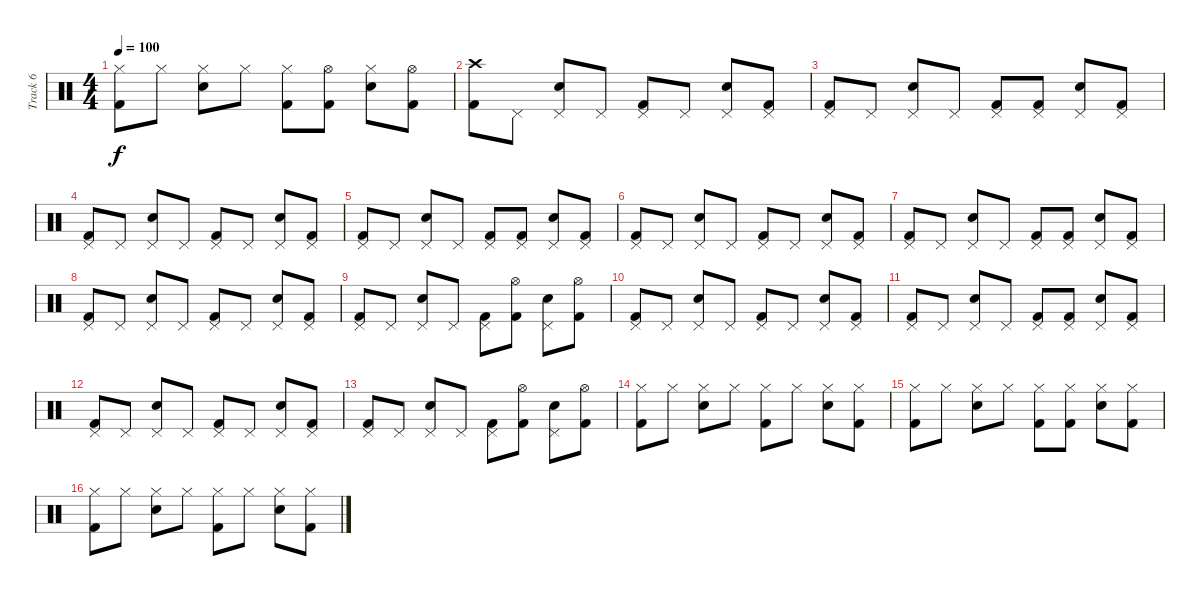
\track ("Track 6" "Track 6") {instrument percussion}
\staff {score}
\articulation defaults
\ts (4 4)
\tempo 100
\clef neutral
\ks c
("Hi-Hat (closed)" "Kick (hit) 2").8{dy f} "Hi-Hat (closed)".8 ("Hi-Hat (closed)" "Electric Snare (hit)").8 "Hi-Hat (closed)".8 ("Hi-Hat (closed)" "Kick (hit) 2").8 ("Hi-Hat (open)" "Kick (hit) 2").8 ("Hi-Hat (closed)" "Electric Snare (hit)").8 ("Hi-Hat (open)" "Kick (hit) 2").8 |
("Crash high (hit)" "Kick (hit) 2").8 "Pedal Hi-Hat (hit)".8 ("Pedal Hi-Hat (hit)" "Electric Snare (hit)").8 "Pedal Hi-Hat (hit)".8 ("Pedal Hi-Hat (hit)" "Kick (hit) 2").8 "Pedal Hi-Hat (hit)".8 ("Pedal Hi-Hat (hit)" "Electric Snare (hit)").8 ("Pedal Hi-Hat (hit)" "Kick (hit) 2").8 |
("Pedal Hi-Hat (hit)" "Kick (hit) 2").8 "Pedal Hi-Hat (hit)".8 ("Pedal Hi-Hat (hit)" "Electric Snare (hit)").8 "Pedal Hi-Hat (hit)".8 ("Pedal Hi-Hat (hit)" "Kick (hit) 2").8 ("Pedal Hi-Hat (hit)" "Kick (hit) 2").8 ("Pedal Hi-Hat (hit)" "Electric Snare (hit)").8 ("Pedal Hi-Hat (hit)" "Kick (hit) 2").8 |
("Pedal Hi-Hat (hit)" "Kick (hit) 2").8 "Pedal Hi-Hat (hit)".8 ("Pedal Hi-Hat (hit)" "Electric Snare (hit)").8 "Pedal Hi-Hat (hit)".8 ("Pedal Hi-Hat (hit)" "Kick (hit) 2").8 "Pedal Hi-Hat (hit)".8 ("Pedal Hi-Hat (hit)" "Electric Snare (hit)").8 ("Pedal Hi-Hat (hit)" "Kick (hit) 2").8 |
("Pedal Hi-Hat (hit)" "Kick (hit) 2").8 "Pedal Hi-Hat (hit)".8 ("Pedal Hi-Hat (hit)" "Electric Snare (hit)").8 "Pedal Hi-Hat (hit)".8 ("Pedal Hi-Hat (hit)" "Kick (hit) 2").8 ("Pedal Hi-Hat (hit)" "Kick (hit) 2").8 ("Pedal Hi-Hat (hit)" "Electric Snare (hit)").8 ("Pedal Hi-Hat (hit)" "Kick (hit) 2").8 |
("Pedal Hi-Hat (hit)" "Kick (hit) 2").8 "Pedal Hi-Hat (hit)".8 ("Pedal Hi-Hat (hit)" "Electric Snare (hit)").8 "Pedal Hi-Hat (hit)".8 ("Pedal Hi-Hat (hit)" "Kick (hit) 2").8 "Pedal Hi-Hat (hit)".8 ("Pedal Hi-Hat (hit)" "Electric Snare (hit)").8 ("Pedal Hi-Hat (hit)" "Kick (hit) 2").8 |
("Pedal Hi-Hat (hit)" "Kick (hit) 2").8 "Pedal Hi-Hat (hit)".8 ("Pedal Hi-Hat (hit)" "Electric Snare (hit)").8 "Pedal Hi-Hat (hit)".8 ("Pedal Hi-Hat (hit)" "Kick (hit) 2").8 ("Pedal Hi-Hat (hit)" "Kick (hit) 2").8 ("Pedal Hi-Hat (hit)" "Electric Snare (hit)").8 ("Pedal Hi-Hat (hit)" "Kick (hit) 2").8 |
("Pedal Hi-Hat (hit)" "Kick (hit) 2").8 "Pedal Hi-Hat (hit)".8 ("Pedal Hi-Hat (hit)" "Electric Snare (hit)").8 "Pedal Hi-Hat (hit)".8 ("Pedal Hi-Hat (hit)" "Kick (hit) 2").8 "Pedal Hi-Hat (hit)".8 ("Pedal Hi-Hat (hit)" "Electric Snare (hit)").8 ("Pedal Hi-Hat (hit)" "Kick (hit) 2").8 |
("Pedal Hi-Hat (hit)" "Kick (hit) 2").8 "Pedal Hi-Hat (hit)".8 ("Pedal Hi-Hat (hit)" "Electric Snare (hit)").8 "Pedal Hi-Hat (hit)".8 ("Pedal Hi-Hat (hit)" "Kick (hit) 2").8 ("Hi-Hat (open)" "Kick (hit) 2").8 ("Pedal Hi-Hat (hit)" "Electric Snare (hit)").8 ("Hi-Hat (open)" "Kick (hit) 2").8 |
("Pedal Hi-Hat (hit)" "Kick (hit) 2").8 "Pedal Hi-Hat (hit)".8 ("Pedal Hi-Hat (hit)" "Electric Snare (hit)").8 "Pedal Hi-Hat (hit)".8 ("Pedal Hi-Hat (hit)" "Kick (hit) 2").8 "Pedal Hi-Hat (hit)".8 ("Pedal Hi-Hat (hit)" "Electric Snare (hit)").8 ("Pedal Hi-Hat (hit)" "Kick (hit) 2").8 |
("Pedal Hi-Hat (hit)" "Kick (hit) 2").8 "Pedal Hi-Hat (hit)".8 ("Pedal Hi-Hat (hit)" "Electric Snare (hit)").8 "Pedal Hi-Hat (hit)".8 ("Pedal Hi-Hat (hit)" "Kick (hit) 2").8 ("Pedal Hi-Hat (hit)" "Kick (hit) 2").8 ("Pedal Hi-Hat (hit)" "Electric Snare (hit)").8 ("Pedal Hi-Hat (hit)" "Kick (hit) 2").8 |
("Pedal Hi-Hat (hit)" "Kick (hit) 2").8 "Pedal Hi-Hat (hit)".8 ("Pedal Hi-Hat (hit)" "Electric Snare (hit)").8 "Pedal Hi-Hat (hit)".8 ("Pedal Hi-Hat (hit)" "Kick (hit) 2").8 "Pedal Hi-Hat (hit)".8 ("Pedal Hi-Hat (hit)" "Electric Snare (hit)").8 ("Pedal Hi-Hat (hit)" "Kick (hit) 2").8 |
("Pedal Hi-Hat (hit)" "Kick (hit) 2").8 "Pedal Hi-Hat (hit)".8 ("Pedal Hi-Hat (hit)" "Electric Snare (hit)").8 "Pedal Hi-Hat (hit)".8 ("Pedal Hi-Hat (hit)" "Kick (hit) 2").8 ("Hi-Hat (open)" "Kick (hit) 2").8 ("Pedal Hi-Hat (hit)" "Electric Snare (hit)").8 ("Hi-Hat (open)" "Kick (hit) 2").8 |
("Hi-Hat (closed)" "Kick (hit) 2").8 "Hi-Hat (closed)".8 ("Hi-Hat (closed)" "Electric Snare (hit)").8 "Hi-Hat (closed)".8 ("Hi-Hat (closed)" "Kick (hit) 2").8 "Hi-Hat (closed)".8 ("Hi-Hat (closed)" "Electric Snare (hit)").8 ("Hi-Hat (closed)" "Kick (hit) 2").8 |
("Hi-Hat (closed)" "Kick (hit) 2").8 "Hi-Hat (closed)".8 ("Hi-Hat (closed)" "Electric Snare (hit)").8 "Hi-Hat (closed)".8 ("Hi-Hat (closed)" "Kick (hit) 2").8 ("Hi-Hat (closed)" "Kick (hit) 2").8 ("Hi-Hat (closed)" "Electric Snare (hit)").8 ("Hi-Hat (closed)" "Kick (hit) 2").8 |
("Hi-Hat (closed)" "Kick (hit) 2").8 "Hi-Hat (closed)".8 ("Hi-Hat (closed)" "Electric Snare (hit)").8 "Hi-Hat (closed)".8 ("Hi-Hat (closed)" "Kick (hit) 2").8 "Hi-Hat (closed)".8 ("Hi-Hat (closed)" "Electric Snare (hit)").8 ("Hi-Hat (closed)" "Kick (hit) 2").8
